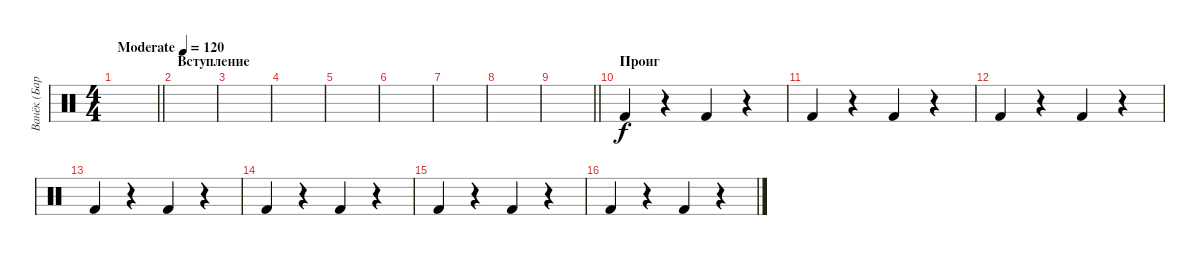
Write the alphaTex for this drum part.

\track ("Ванёк (Барабанщик)" "Ванёк (Бар") {instrument percussion}
\staff {score}
\articulation defaults
\ts (4 4)
\tempo (120 "Moderate")
\clef neutral
\barLineRight lightlight
\ks c
|
\section ("" "Вступление")
|
|
|
|
|
|
|
\barLineRight lightlight
|
\section ("" "Проиг")
"Kick (hit) 2".4 r.4 "Kick (hit) 2".4 r.4 |
"Kick (hit) 2".4 r.4 "Kick (hit) 2".4 r.4 |
"Kick (hit) 2".4 r.4 "Kick (hit) 2".4 r.4 |
"Kick (hit) 2".4 r.4 "Kick (hit) 2".4 r.4 |
"Kick (hit) 2".4 r.4 "Kick (hit) 2".4 r.4 |
"Kick (hit) 2".4 r.4 "Kick (hit) 2".4 r.4 |
"Kick (hit) 2".4 r.4 "Kick (hit) 2".4 r.4
